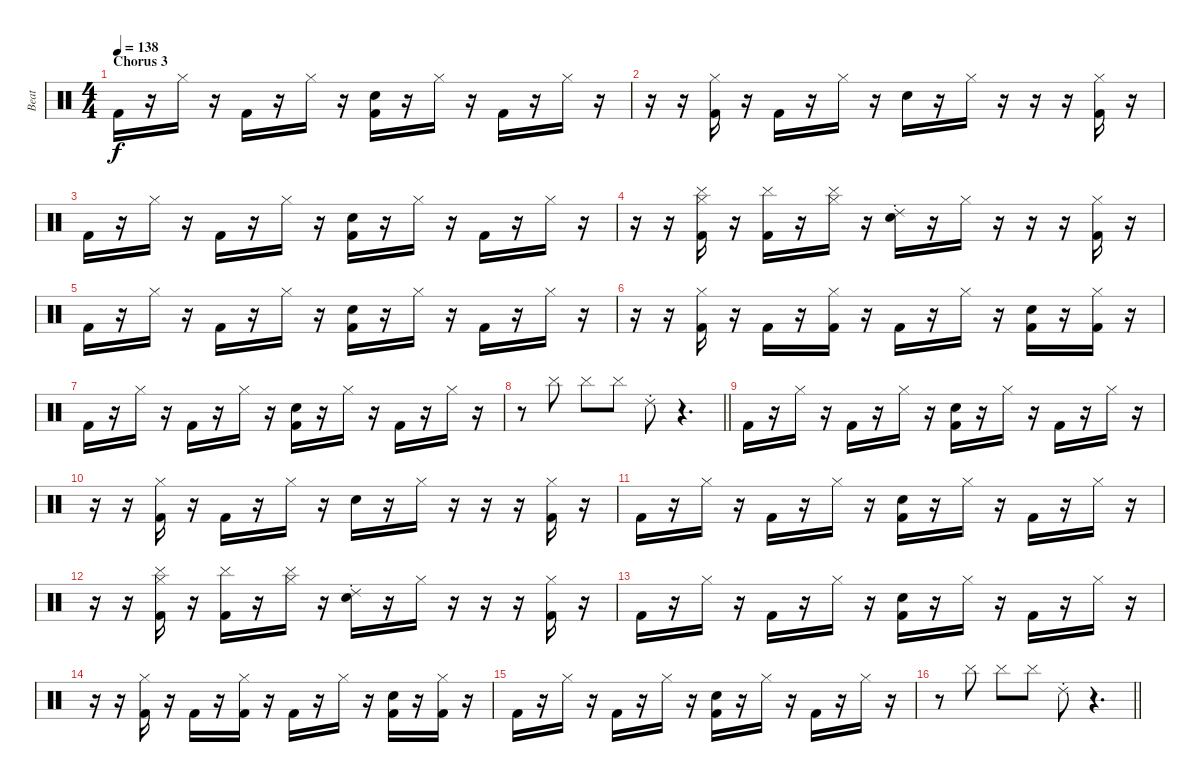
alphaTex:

\track ("Beat" "Beat") {instrument percussion}
\staff {score}
\articulation defaults
\ts (4 4)
\section ("" "Chorus 3")
\tempo 138
\clef neutral
\ks c "Kick (hit) 2".16{dy f}
r.16 "Hi-Hat (closed)".16 r.16 "Kick (hit) 2".16 r.16 "Hi-Hat (closed)".16 r.16 ("Electric Snare (hit)" "Kick (hit) 2").16 r.16 "Hi-Hat (closed)".16 r.16 "Kick (hit) 2".16 r.16 "Hi-Hat (closed)".16 r.16 |
r.16 r.16 ("Hi-Hat (closed)" "Kick (hit) 2").16 r.16 "Kick (hit) 2".16 r.16 "Hi-Hat (closed)".16 r.16 "Electric Snare (hit)".16 r.16 "Hi-Hat (closed)".16 r.16 r.16 r.16 ("Hi-Hat (closed)" "Kick (hit) 2").16 r.16 |
"Kick (hit) 2".16 r.16 "Hi-Hat (closed)".16 r.16 "Kick (hit) 2".16 r.16 "Hi-Hat (closed)".16 r.16 ("Electric Snare (hit)" "Kick (hit) 2").16 r.16 "Hi-Hat (closed)".16 r.16 "Kick (hit) 2".16 r.16 "Hi-Hat (closed)".16 r.16 |
r.16 r.16 ("Cymbal (hit)" "Hi-Hat (closed)" "Kick (hit) 2").16 r.16 ("Cymbal (hit)" "Kick (hit) 2").16 r.16 ("Cymbal (hit)" "Hi-Hat (closed)").16 r.16 ("Ride (choke) 2" "Electric Snare (hit)").16 r.16 "Hi-Hat (closed)".16 r.16 r.16 r.16 ("Hi-Hat (closed)" "Kick (hit) 2").16 r.16 |
"Kick (hit) 2".16 r.16 "Hi-Hat (closed)".16 r.16 "Kick (hit) 2".16 r.16 "Hi-Hat (closed)".16 r.16 ("Electric Snare (hit)" "Kick (hit) 2").16 r.16 "Hi-Hat (closed)".16 r.16 "Kick (hit) 2".16 r.16 "Hi-Hat (closed)".16 r.16 |
r.16 r.16 ("Hi-Hat (closed)" "Kick (hit) 2").16 r.16 "Kick (hit) 2".16 r.16 ("Hi-Hat (closed)" "Kick (hit) 2").16 r.16 "Kick (hit) 2".16 r.16 "Hi-Hat (closed)".16 r.16 ("Electric Snare (hit)" "Kick (hit) 2").16 r.16 ("Hi-Hat (closed)" "Kick (hit) 2").16 r.16 |
"Kick (hit) 2".16 r.16 "Hi-Hat (closed)".16 r.16 "Kick (hit) 2".16 r.16 "Hi-Hat (closed)".16 r.16 ("Electric Snare (hit)" "Kick (hit) 2").16 r.16 "Hi-Hat (closed)".16 r.16 "Kick (hit) 2".16 r.16 "Hi-Hat (closed)".16 r.16 |
\barLineRight lightlight
r.8 "Cymbal (hit)".8 "Cymbal (hit)".8 "Cymbal (hit)".8 "Ride (choke) 2".8 r.4{d} |
"Kick (hit) 2".16 r.16 "Hi-Hat (closed)".16 r.16 "Kick (hit) 2".16 r.16 "Hi-Hat (closed)".16 r.16 ("Electric Snare (hit)" "Kick (hit) 2").16 r.16 "Hi-Hat (closed)".16 r.16 "Kick (hit) 2".16 r.16 "Hi-Hat (closed)".16 r.16 |
r.16 r.16 ("Hi-Hat (closed)" "Kick (hit) 2").16 r.16 "Kick (hit) 2".16 r.16 "Hi-Hat (closed)".16 r.16 "Electric Snare (hit)".16 r.16 "Hi-Hat (closed)".16 r.16 r.16 r.16 ("Hi-Hat (closed)" "Kick (hit) 2").16 r.16 |
"Kick (hit) 2".16 r.16 "Hi-Hat (closed)".16 r.16 "Kick (hit) 2".16 r.16 "Hi-Hat (closed)".16 r.16 ("Electric Snare (hit)" "Kick (hit) 2").16 r.16 "Hi-Hat (closed)".16 r.16 "Kick (hit) 2".16 r.16 "Hi-Hat (closed)".16 r.16 |
r.16 r.16 ("Cymbal (hit)" "Hi-Hat (closed)" "Kick (hit) 2").16 r.16 ("Cymbal (hit)" "Kick (hit) 2").16 r.16 ("Cymbal (hit)" "Hi-Hat (closed)").16 r.16 ("Ride (choke) 2" "Electric Snare (hit)").16 r.16 "Hi-Hat (closed)".16 r.16 r.16 r.16 ("Hi-Hat (closed)" "Kick (hit) 2").16 r.16 |
"Kick (hit) 2".16 r.16 "Hi-Hat (closed)".16 r.16 "Kick (hit) 2".16 r.16 "Hi-Hat (closed)".16 r.16 ("Electric Snare (hit)" "Kick (hit) 2").16 r.16 "Hi-Hat (closed)".16 r.16 "Kick (hit) 2".16 r.16 "Hi-Hat (closed)".16 r.16 |
r.16 r.16 ("Hi-Hat (closed)" "Kick (hit) 2").16 r.16 "Kick (hit) 2".16 r.16 ("Hi-Hat (closed)" "Kick (hit) 2").16 r.16 "Kick (hit) 2".16 r.16 "Hi-Hat (closed)".16 r.16 ("Electric Snare (hit)" "Kick (hit) 2").16 r.16 ("Hi-Hat (closed)" "Kick (hit) 2").16 r.16 |
"Kick (hit) 2".16 r.16 "Hi-Hat (closed)".16 r.16 "Kick (hit) 2".16 r.16 "Hi-Hat (closed)".16 r.16 ("Electric Snare (hit)" "Kick (hit) 2").16 r.16 "Hi-Hat (closed)".16 r.16 "Kick (hit) 2".16 r.16 "Hi-Hat (closed)".16 r.16 |
\barLineRight lightlight
r.8 "Cymbal (hit)".8 "Cymbal (hit)".8 "Cymbal (hit)".8 "Ride (choke) 2".8 r.4{d}
